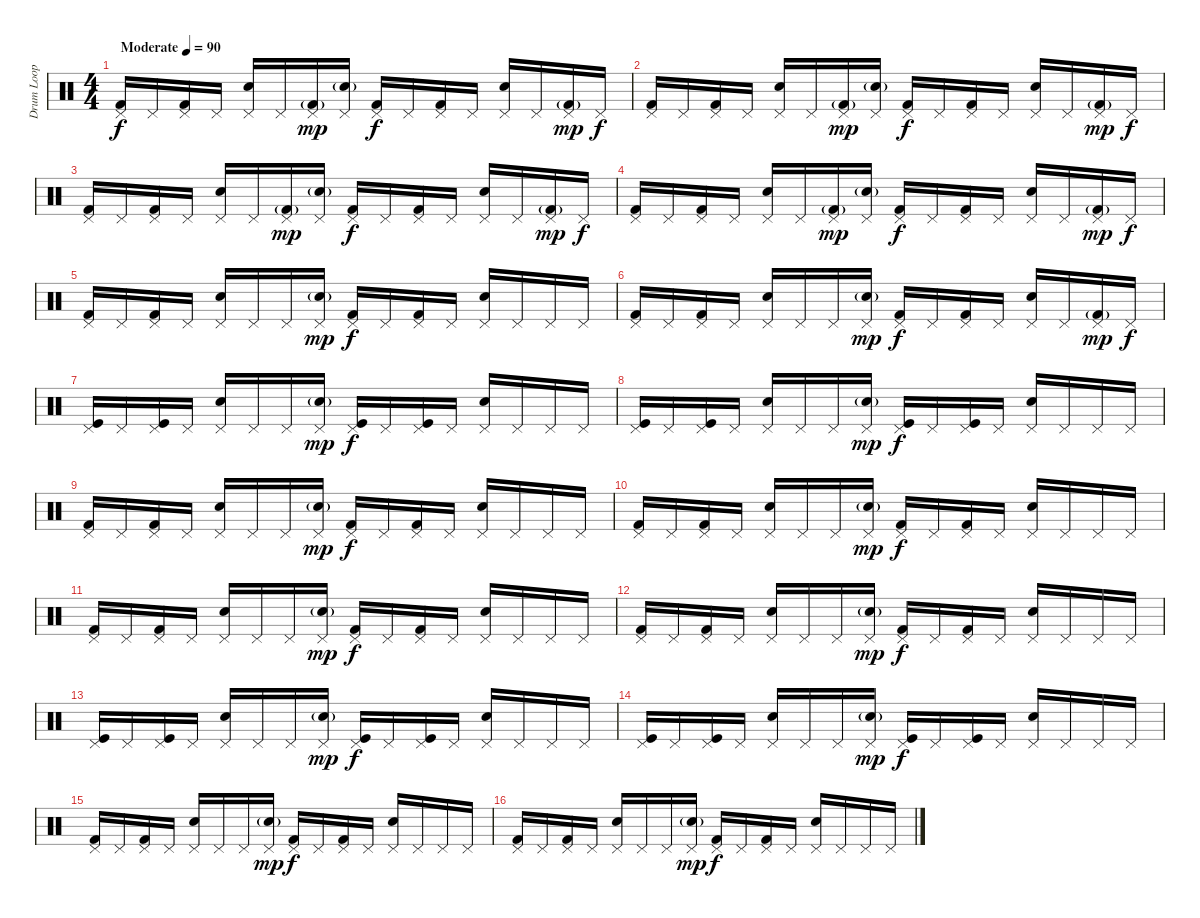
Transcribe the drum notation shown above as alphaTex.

\track ("Drum Loop" "Drum Loop") {instrument percussion}
\staff {score}
\articulation defaults
\ts (4 4)
\tempo (90 "Moderate")
\clef neutral
\ks c
("Pedal Hi-Hat (hit)" "Kick (hit) 2").16{dy f} "Pedal Hi-Hat (hit)".16 ("Pedal Hi-Hat (hit)" "Kick (hit) 2").16 "Pedal Hi-Hat (hit)".16 ("Pedal Hi-Hat (hit)" "Snare (hit) 2").16 "Pedal Hi-Hat (hit)".16 ("Pedal Hi-Hat (hit)" "Kick (hit) 2"{g}).16{dy mp} ("Pedal Hi-Hat (hit)" "Snare (hit) 2"{g}).16 ("Pedal Hi-Hat (hit)" "Kick (hit) 2").16{dy f} "Pedal Hi-Hat (hit)".16 ("Pedal Hi-Hat (hit)" "Kick (hit) 2").16 "Pedal Hi-Hat (hit)".16 ("Pedal Hi-Hat (hit)" "Snare (hit) 2").16 "Pedal Hi-Hat (hit)".16 ("Pedal Hi-Hat (hit)" "Kick (hit) 2"{g}).16{dy mp} "Pedal Hi-Hat (hit)".16{dy f} |
("Pedal Hi-Hat (hit)" "Kick (hit) 2").16 "Pedal Hi-Hat (hit)".16 ("Pedal Hi-Hat (hit)" "Kick (hit) 2").16 "Pedal Hi-Hat (hit)".16 ("Pedal Hi-Hat (hit)" "Snare (hit) 2").16 "Pedal Hi-Hat (hit)".16 ("Pedal Hi-Hat (hit)" "Kick (hit) 2"{g}).16{dy mp} ("Pedal Hi-Hat (hit)" "Snare (hit) 2"{g}).16 ("Pedal Hi-Hat (hit)" "Kick (hit) 2").16{dy f} "Pedal Hi-Hat (hit)".16 ("Pedal Hi-Hat (hit)" "Kick (hit) 2").16 "Pedal Hi-Hat (hit)".16 ("Pedal Hi-Hat (hit)" "Snare (hit) 2").16 "Pedal Hi-Hat (hit)".16 ("Pedal Hi-Hat (hit)" "Kick (hit) 2"{g}).16{dy mp} "Pedal Hi-Hat (hit)".16{dy f} |
("Pedal Hi-Hat (hit)" "Kick (hit) 2").16 "Pedal Hi-Hat (hit)".16 ("Pedal Hi-Hat (hit)" "Kick (hit) 2").16 "Pedal Hi-Hat (hit)".16 ("Pedal Hi-Hat (hit)" "Snare (hit) 2").16 "Pedal Hi-Hat (hit)".16 ("Pedal Hi-Hat (hit)" "Kick (hit) 2"{g}).16{dy mp} ("Pedal Hi-Hat (hit)" "Snare (hit) 2"{g}).16 ("Pedal Hi-Hat (hit)" "Kick (hit) 2").16{dy f} "Pedal Hi-Hat (hit)".16 ("Pedal Hi-Hat (hit)" "Kick (hit) 2").16 "Pedal Hi-Hat (hit)".16 ("Pedal Hi-Hat (hit)" "Snare (hit) 2").16 "Pedal Hi-Hat (hit)".16 ("Pedal Hi-Hat (hit)" "Kick (hit) 2"{g}).16{dy mp} "Pedal Hi-Hat (hit)".16{dy f} |
("Pedal Hi-Hat (hit)" "Kick (hit) 2").16 "Pedal Hi-Hat (hit)".16 ("Pedal Hi-Hat (hit)" "Kick (hit) 2").16 "Pedal Hi-Hat (hit)".16 ("Pedal Hi-Hat (hit)" "Snare (hit) 2").16 "Pedal Hi-Hat (hit)".16 ("Pedal Hi-Hat (hit)" "Kick (hit) 2"{g}).16{dy mp} ("Pedal Hi-Hat (hit)" "Snare (hit) 2"{g}).16 ("Pedal Hi-Hat (hit)" "Kick (hit) 2").16{dy f} "Pedal Hi-Hat (hit)".16 ("Pedal Hi-Hat (hit)" "Kick (hit) 2").16 "Pedal Hi-Hat (hit)".16 ("Pedal Hi-Hat (hit)" "Snare (hit) 2").16 "Pedal Hi-Hat (hit)".16 ("Pedal Hi-Hat (hit)" "Kick (hit) 2"{g}).16{dy mp} "Pedal Hi-Hat (hit)".16{dy f} |
("Pedal Hi-Hat (hit)" "Kick (hit) 2").16 "Pedal Hi-Hat (hit)".16 ("Pedal Hi-Hat (hit)" "Kick (hit) 2").16 "Pedal Hi-Hat (hit)".16 ("Pedal Hi-Hat (hit)" "Snare (hit) 2").16 "Pedal Hi-Hat (hit)".16 "Pedal Hi-Hat (hit)".16 ("Pedal Hi-Hat (hit)" "Snare (hit) 2"{g}).16{dy mp} ("Pedal Hi-Hat (hit)" "Kick (hit) 2").16{dy f} "Pedal Hi-Hat (hit)".16 ("Pedal Hi-Hat (hit)" "Kick (hit) 2").16 "Pedal Hi-Hat (hit)".16 ("Pedal Hi-Hat (hit)" "Snare (hit) 2").16 "Pedal Hi-Hat (hit)".16 "Pedal Hi-Hat (hit)".16 "Pedal Hi-Hat (hit)".16 |
("Pedal Hi-Hat (hit)" "Kick (hit) 2").16 "Pedal Hi-Hat (hit)".16 ("Pedal Hi-Hat (hit)" "Kick (hit) 2").16 "Pedal Hi-Hat (hit)".16 ("Pedal Hi-Hat (hit)" "Snare (hit) 2").16 "Pedal Hi-Hat (hit)".16 "Pedal Hi-Hat (hit)".16 ("Pedal Hi-Hat (hit)" "Snare (hit) 2"{g}).16{dy mp} ("Pedal Hi-Hat (hit)" "Kick (hit) 2").16{dy f} "Pedal Hi-Hat (hit)".16 ("Pedal Hi-Hat (hit)" "Kick (hit) 2").16 "Pedal Hi-Hat (hit)".16 ("Pedal Hi-Hat (hit)" "Snare (hit) 2").16 "Pedal Hi-Hat (hit)".16 ("Pedal Hi-Hat (hit)" "Kick (hit) 2"{g}).16{dy mp} "Pedal Hi-Hat (hit)".16{dy f} |
("Pedal Hi-Hat (hit)" "Kick (hit)").16 "Pedal Hi-Hat (hit)".16 ("Pedal Hi-Hat (hit)" "Kick (hit)").16 "Pedal Hi-Hat (hit)".16 ("Pedal Hi-Hat (hit)" "Snare (hit) 2").16 "Pedal Hi-Hat (hit)".16 "Pedal Hi-Hat (hit)".16 ("Pedal Hi-Hat (hit)" "Snare (hit) 2"{g}).16{dy mp} ("Pedal Hi-Hat (hit)" "Kick (hit)").16{dy f} "Pedal Hi-Hat (hit)".16 ("Pedal Hi-Hat (hit)" "Kick (hit)").16 "Pedal Hi-Hat (hit)".16 ("Pedal Hi-Hat (hit)" "Snare (hit) 2").16 "Pedal Hi-Hat (hit)".16 "Pedal Hi-Hat (hit)".16 "Pedal Hi-Hat (hit)".16 |
("Pedal Hi-Hat (hit)" "Kick (hit)").16 "Pedal Hi-Hat (hit)".16 ("Pedal Hi-Hat (hit)" "Kick (hit)").16 "Pedal Hi-Hat (hit)".16 ("Pedal Hi-Hat (hit)" "Snare (hit) 2").16 "Pedal Hi-Hat (hit)".16 "Pedal Hi-Hat (hit)".16 ("Pedal Hi-Hat (hit)" "Snare (hit) 2"{g}).16{dy mp} ("Pedal Hi-Hat (hit)" "Kick (hit)").16{dy f} "Pedal Hi-Hat (hit)".16 ("Pedal Hi-Hat (hit)" "Kick (hit)").16 "Pedal Hi-Hat (hit)".16 ("Pedal Hi-Hat (hit)" "Snare (hit) 2").16 "Pedal Hi-Hat (hit)".16 "Pedal Hi-Hat (hit)".16 "Pedal Hi-Hat (hit)".16 |
("Pedal Hi-Hat (hit)" "Kick (hit) 2").16 "Pedal Hi-Hat (hit)".16 ("Pedal Hi-Hat (hit)" "Kick (hit) 2").16 "Pedal Hi-Hat (hit)".16 ("Pedal Hi-Hat (hit)" "Snare (hit) 2").16 "Pedal Hi-Hat (hit)".16 "Pedal Hi-Hat (hit)".16 ("Pedal Hi-Hat (hit)" "Snare (hit) 2"{g}).16{dy mp} ("Pedal Hi-Hat (hit)" "Kick (hit) 2").16{dy f} "Pedal Hi-Hat (hit)".16 ("Pedal Hi-Hat (hit)" "Kick (hit) 2").16 "Pedal Hi-Hat (hit)".16 ("Pedal Hi-Hat (hit)" "Snare (hit) 2").16 "Pedal Hi-Hat (hit)".16 "Pedal Hi-Hat (hit)".16 "Pedal Hi-Hat (hit)".16 |
("Pedal Hi-Hat (hit)" "Kick (hit) 2").16 "Pedal Hi-Hat (hit)".16 ("Pedal Hi-Hat (hit)" "Kick (hit) 2").16 "Pedal Hi-Hat (hit)".16 ("Pedal Hi-Hat (hit)" "Snare (hit) 2").16 "Pedal Hi-Hat (hit)".16 "Pedal Hi-Hat (hit)".16 ("Pedal Hi-Hat (hit)" "Snare (hit) 2"{g}).16{dy mp} ("Pedal Hi-Hat (hit)" "Kick (hit) 2").16{dy f} "Pedal Hi-Hat (hit)".16 ("Pedal Hi-Hat (hit)" "Kick (hit) 2").16 "Pedal Hi-Hat (hit)".16 ("Pedal Hi-Hat (hit)" "Snare (hit) 2").16 "Pedal Hi-Hat (hit)".16 "Pedal Hi-Hat (hit)".16 "Pedal Hi-Hat (hit)".16 |
("Pedal Hi-Hat (hit)" "Kick (hit) 2").16 "Pedal Hi-Hat (hit)".16 ("Pedal Hi-Hat (hit)" "Kick (hit) 2").16 "Pedal Hi-Hat (hit)".16 ("Pedal Hi-Hat (hit)" "Snare (hit) 2").16 "Pedal Hi-Hat (hit)".16 "Pedal Hi-Hat (hit)".16 ("Pedal Hi-Hat (hit)" "Snare (hit) 2"{g}).16{dy mp} ("Pedal Hi-Hat (hit)" "Kick (hit) 2").16{dy f} "Pedal Hi-Hat (hit)".16 ("Pedal Hi-Hat (hit)" "Kick (hit) 2").16 "Pedal Hi-Hat (hit)".16 ("Pedal Hi-Hat (hit)" "Snare (hit) 2").16 "Pedal Hi-Hat (hit)".16 "Pedal Hi-Hat (hit)".16 "Pedal Hi-Hat (hit)".16 |
("Pedal Hi-Hat (hit)" "Kick (hit) 2").16 "Pedal Hi-Hat (hit)".16 ("Pedal Hi-Hat (hit)" "Kick (hit) 2").16 "Pedal Hi-Hat (hit)".16 ("Pedal Hi-Hat (hit)" "Snare (hit) 2").16 "Pedal Hi-Hat (hit)".16 "Pedal Hi-Hat (hit)".16 ("Pedal Hi-Hat (hit)" "Snare (hit) 2"{g}).16{dy mp} ("Pedal Hi-Hat (hit)" "Kick (hit) 2").16{dy f} "Pedal Hi-Hat (hit)".16 ("Pedal Hi-Hat (hit)" "Kick (hit) 2").16 "Pedal Hi-Hat (hit)".16 ("Pedal Hi-Hat (hit)" "Snare (hit) 2").16 "Pedal Hi-Hat (hit)".16 "Pedal Hi-Hat (hit)".16 "Pedal Hi-Hat (hit)".16 |
("Pedal Hi-Hat (hit)" "Kick (hit)").16 "Pedal Hi-Hat (hit)".16 ("Pedal Hi-Hat (hit)" "Kick (hit)").16 "Pedal Hi-Hat (hit)".16 ("Pedal Hi-Hat (hit)" "Snare (hit) 2").16 "Pedal Hi-Hat (hit)".16 "Pedal Hi-Hat (hit)".16 ("Pedal Hi-Hat (hit)" "Snare (hit) 2"{g}).16{dy mp} ("Pedal Hi-Hat (hit)" "Kick (hit)").16{dy f} "Pedal Hi-Hat (hit)".16 ("Pedal Hi-Hat (hit)" "Kick (hit)").16 "Pedal Hi-Hat (hit)".16 ("Pedal Hi-Hat (hit)" "Snare (hit) 2").16 "Pedal Hi-Hat (hit)".16 "Pedal Hi-Hat (hit)".16 "Pedal Hi-Hat (hit)".16 |
("Pedal Hi-Hat (hit)" "Kick (hit)").16 "Pedal Hi-Hat (hit)".16 ("Pedal Hi-Hat (hit)" "Kick (hit)").16 "Pedal Hi-Hat (hit)".16 ("Pedal Hi-Hat (hit)" "Snare (hit) 2").16 "Pedal Hi-Hat (hit)".16 "Pedal Hi-Hat (hit)".16 ("Pedal Hi-Hat (hit)" "Snare (hit) 2"{g}).16{dy mp} ("Pedal Hi-Hat (hit)" "Kick (hit)").16{dy f} "Pedal Hi-Hat (hit)".16 ("Pedal Hi-Hat (hit)" "Kick (hit)").16 "Pedal Hi-Hat (hit)".16 ("Pedal Hi-Hat (hit)" "Snare (hit) 2").16 "Pedal Hi-Hat (hit)".16 "Pedal Hi-Hat (hit)".16 "Pedal Hi-Hat (hit)".16 |
("Pedal Hi-Hat (hit)" "Kick (hit) 2").16 "Pedal Hi-Hat (hit)".16 ("Pedal Hi-Hat (hit)" "Kick (hit) 2").16 "Pedal Hi-Hat (hit)".16 ("Pedal Hi-Hat (hit)" "Snare (hit) 2").16 "Pedal Hi-Hat (hit)".16 "Pedal Hi-Hat (hit)".16 ("Pedal Hi-Hat (hit)" "Snare (hit) 2"{g}).16{dy mp} ("Pedal Hi-Hat (hit)" "Kick (hit) 2").16{dy f} "Pedal Hi-Hat (hit)".16 ("Pedal Hi-Hat (hit)" "Kick (hit) 2").16 "Pedal Hi-Hat (hit)".16 ("Pedal Hi-Hat (hit)" "Snare (hit) 2").16 "Pedal Hi-Hat (hit)".16 "Pedal Hi-Hat (hit)".16 "Pedal Hi-Hat (hit)".16 |
("Pedal Hi-Hat (hit)" "Kick (hit) 2").16 "Pedal Hi-Hat (hit)".16 ("Pedal Hi-Hat (hit)" "Kick (hit) 2").16 "Pedal Hi-Hat (hit)".16 ("Pedal Hi-Hat (hit)" "Snare (hit) 2").16 "Pedal Hi-Hat (hit)".16 "Pedal Hi-Hat (hit)".16 ("Pedal Hi-Hat (hit)" "Snare (hit) 2"{g}).16{dy mp} ("Pedal Hi-Hat (hit)" "Kick (hit) 2").16{dy f} "Pedal Hi-Hat (hit)".16 ("Pedal Hi-Hat (hit)" "Kick (hit) 2").16 "Pedal Hi-Hat (hit)".16 ("Pedal Hi-Hat (hit)" "Snare (hit) 2").16 "Pedal Hi-Hat (hit)".16 "Pedal Hi-Hat (hit)".16 "Pedal Hi-Hat (hit)".16
